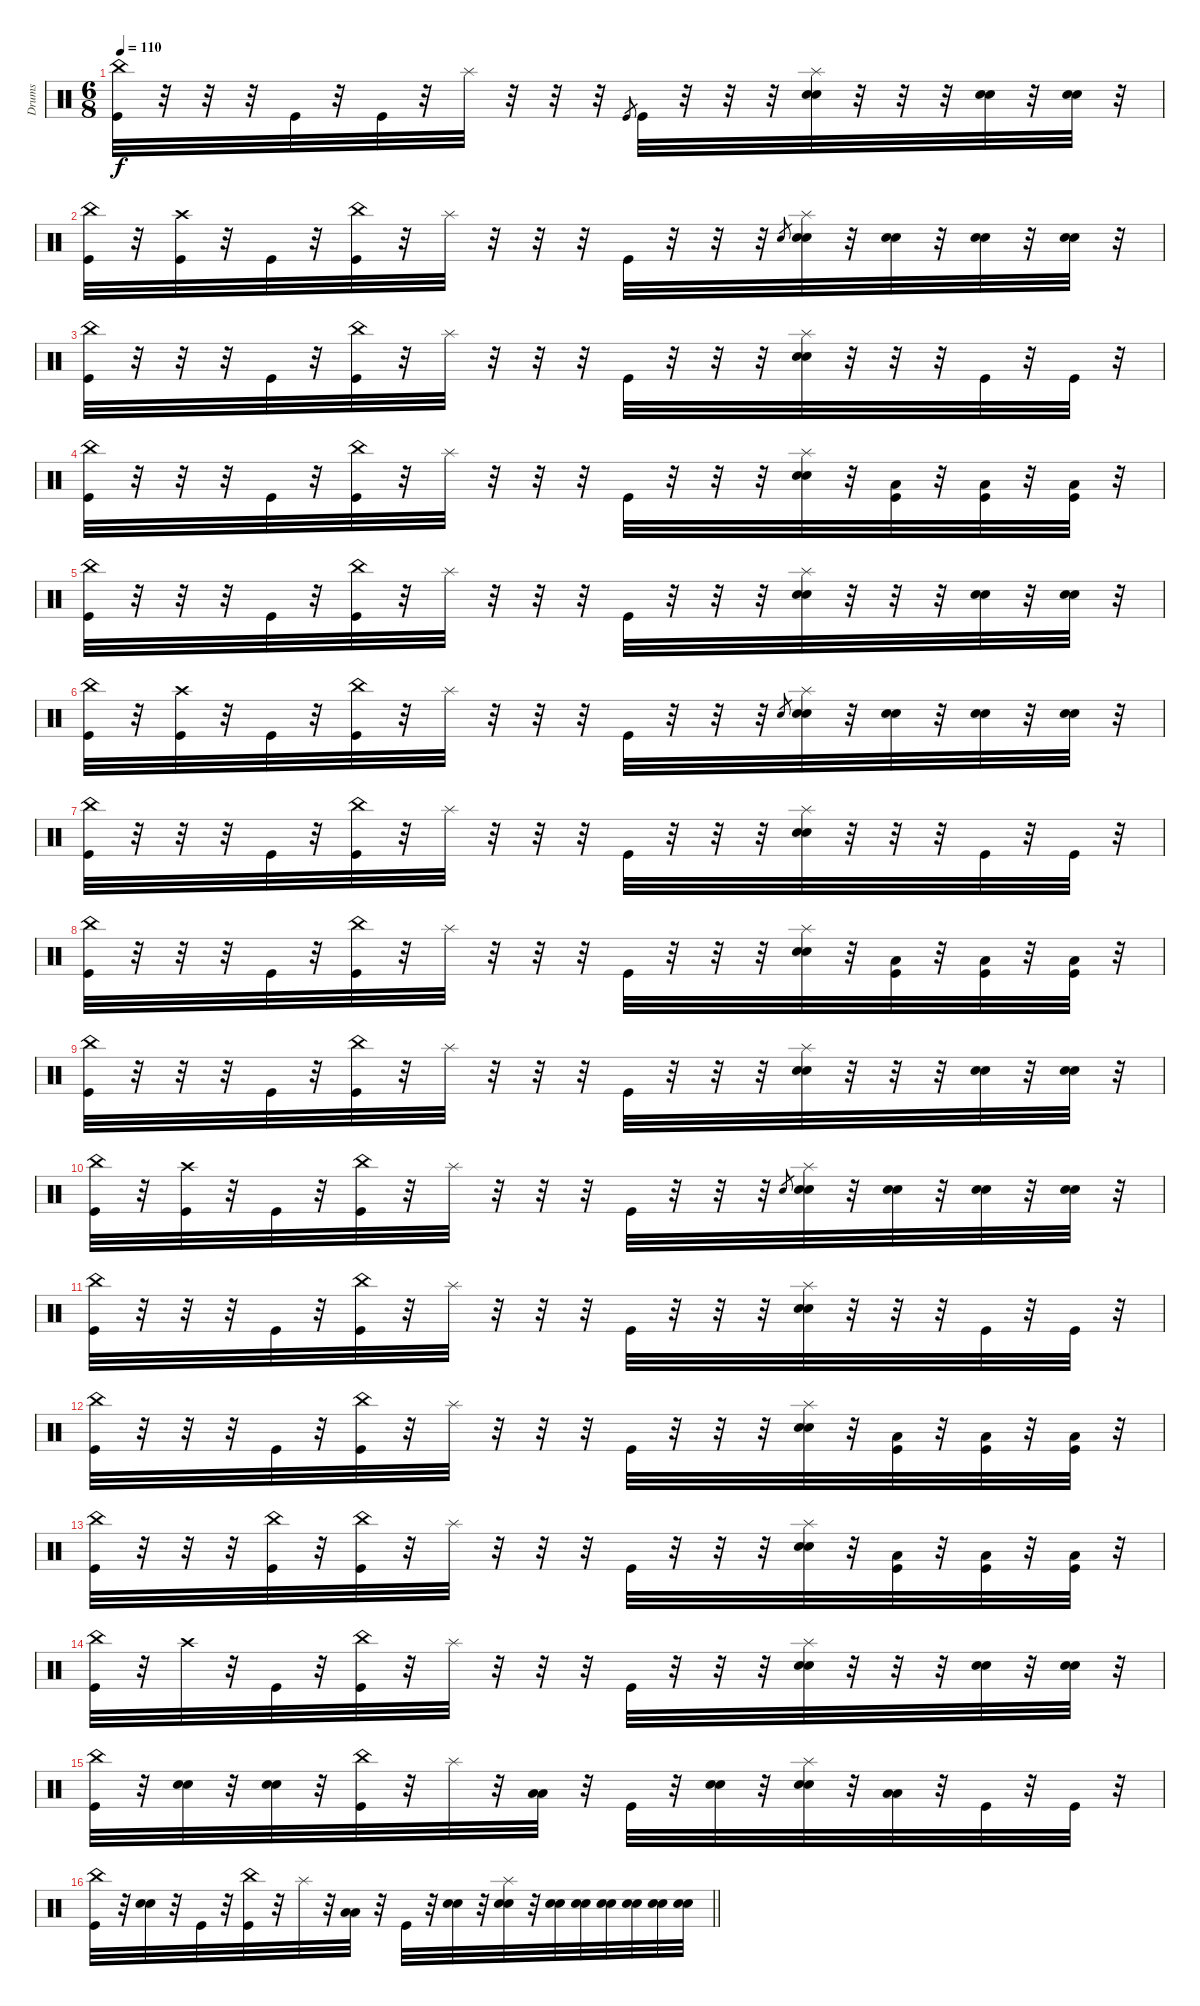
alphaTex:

\track ("Drums" "Drums") {instrument percussion}
\staff {score}
\articulation defaults
\ts (6 8)
\tempo 110
\clef neutral
\ks c
("China (hit)" "Kick (hit)").32{dy f} r.32 r.32 r.32 "Kick (hit)".32 r.32 "Kick (hit)".32 r.32 "Splash (hit)".32 r.32 r.32 r.32 "Kick (hit)".8{gr} "Kick (hit)".32 r.32 r.32 r.32 ("Splash (hit)" "Electric Snare (hit)" "Electric Snare (hit)").32 r.32 r.32 r.32 ("Electric Snare (hit)" "Electric Snare (hit)").32 r.32 ("Electric Snare (hit)" "Electric Snare (hit)").32 r.32 |
("China (hit)" "Kick (hit)").32 r.32 ("Crash high (hit)" "Kick (hit)").32 r.32 "Kick (hit)".32 r.32 ("China (hit)" "Kick (hit)").32 r.32 "Splash (hit)".32 r.32 r.32 r.32 "Kick (hit)".32 r.32 r.32 r.32 "Electric Snare (hit)".8{gr} ("Splash (hit)" "Electric Snare (hit)" "Electric Snare (hit)").32 r.32 ("Electric Snare (hit)" "Electric Snare (hit)").32 r.32 ("Electric Snare (hit)" "Electric Snare (hit)").32 r.32 ("Electric Snare (hit)" "Electric Snare (hit)").32 r.32 |
("China (hit)" "Kick (hit)").32 r.32 r.32 r.32 "Kick (hit)".32 r.32 ("China (hit)" "Kick (hit)").32 r.32 "Splash (hit)".32 r.32 r.32 r.32 "Kick (hit)".32 r.32 r.32 r.32 ("Splash (hit)" "Electric Snare (hit)" "Electric Snare (hit)").32 r.32 r.32 r.32 "Kick (hit)".32 r.32 "Kick (hit)".32 r.32 |
("China (hit)" "Kick (hit)").32 r.32 r.32 r.32 "Kick (hit)".32 r.32 ("China (hit)" "Kick (hit)").32 r.32 "Splash (hit)".32 r.32 r.32 r.32 "Kick (hit)".32 r.32 r.32 r.32 ("Splash (hit)" "Electric Snare (hit)" "Electric Snare (hit)").32 r.32 ("Low Floor Tom (hit)" "Kick (hit)").32 r.32 ("Low Floor Tom (hit)" "Kick (hit)").32 r.32 ("Low Floor Tom (hit)" "Kick (hit)").32 r.32 |
("China (hit)" "Kick (hit)").32 r.32 r.32 r.32 "Kick (hit)".32 r.32 ("China (hit)" "Kick (hit)").32 r.32 "Splash (hit)".32 r.32 r.32 r.32 "Kick (hit)".32 r.32 r.32 r.32 ("Splash (hit)" "Electric Snare (hit)" "Electric Snare (hit)").32 r.32 r.32 r.32 ("Electric Snare (hit)" "Electric Snare (hit)").32 r.32 ("Electric Snare (hit)" "Electric Snare (hit)").32 r.32 |
("China (hit)" "Kick (hit)").32 r.32 ("Crash high (hit)" "Kick (hit)").32 r.32 "Kick (hit)".32 r.32 ("China (hit)" "Kick (hit)").32 r.32 "Splash (hit)".32 r.32 r.32 r.32 "Kick (hit)".32 r.32 r.32 r.32 "Electric Snare (hit)".8{gr} ("Splash (hit)" "Electric Snare (hit)" "Electric Snare (hit)").32 r.32 ("Electric Snare (hit)" "Electric Snare (hit)").32 r.32 ("Electric Snare (hit)" "Electric Snare (hit)").32 r.32 ("Electric Snare (hit)" "Electric Snare (hit)").32 r.32 |
("China (hit)" "Kick (hit)").32 r.32 r.32 r.32 "Kick (hit)".32 r.32 ("China (hit)" "Kick (hit)").32 r.32 "Splash (hit)".32 r.32 r.32 r.32 "Kick (hit)".32 r.32 r.32 r.32 ("Splash (hit)" "Electric Snare (hit)" "Electric Snare (hit)").32 r.32 r.32 r.32 "Kick (hit)".32 r.32 "Kick (hit)".32 r.32 |
("China (hit)" "Kick (hit)").32 r.32 r.32 r.32 "Kick (hit)".32 r.32 ("China (hit)" "Kick (hit)").32 r.32 "Splash (hit)".32 r.32 r.32 r.32 "Kick (hit)".32 r.32 r.32 r.32 ("Splash (hit)" "Electric Snare (hit)" "Electric Snare (hit)").32 r.32 ("Low Floor Tom (hit)" "Kick (hit)").32 r.32 ("Low Floor Tom (hit)" "Kick (hit)").32 r.32 ("Low Floor Tom (hit)" "Kick (hit)").32 r.32 |
("China (hit)" "Kick (hit)").32 r.32 r.32 r.32 "Kick (hit)".32 r.32 ("China (hit)" "Kick (hit)").32 r.32 "Splash (hit)".32 r.32 r.32 r.32 "Kick (hit)".32 r.32 r.32 r.32 ("Splash (hit)" "Electric Snare (hit)" "Electric Snare (hit)").32 r.32 r.32 r.32 ("Electric Snare (hit)" "Electric Snare (hit)").32 r.32 ("Electric Snare (hit)" "Electric Snare (hit)").32 r.32 |
("China (hit)" "Kick (hit)").32 r.32 ("Crash high (hit)" "Kick (hit)").32 r.32 "Kick (hit)".32 r.32 ("China (hit)" "Kick (hit)").32 r.32 "Splash (hit)".32 r.32 r.32 r.32 "Kick (hit)".32 r.32 r.32 r.32 "Electric Snare (hit)".8{gr} ("Splash (hit)" "Electric Snare (hit)" "Electric Snare (hit)").32 r.32 ("Electric Snare (hit)" "Electric Snare (hit)").32 r.32 ("Electric Snare (hit)" "Electric Snare (hit)").32 r.32 ("Electric Snare (hit)" "Electric Snare (hit)").32 r.32 |
("China (hit)" "Kick (hit)").32 r.32 r.32 r.32 "Kick (hit)".32 r.32 ("China (hit)" "Kick (hit)").32 r.32 "Splash (hit)".32 r.32 r.32 r.32 "Kick (hit)".32 r.32 r.32 r.32 ("Splash (hit)" "Electric Snare (hit)" "Electric Snare (hit)").32 r.32 r.32 r.32 "Kick (hit)".32 r.32 "Kick (hit)".32 r.32 |
("China (hit)" "Kick (hit)").32 r.32 r.32 r.32 "Kick (hit)".32 r.32 ("China (hit)" "Kick (hit)").32 r.32 "Splash (hit)".32 r.32 r.32 r.32 "Kick (hit)".32 r.32 r.32 r.32 ("Splash (hit)" "Electric Snare (hit)" "Electric Snare (hit)").32 r.32 ("Low Floor Tom (hit)" "Kick (hit)").32 r.32 ("Low Floor Tom (hit)" "Kick (hit)").32 r.32 ("Low Floor Tom (hit)" "Kick (hit)").32 r.32 |
("China (hit)" "Kick (hit)").32 r.32 r.32 r.32 ("China (hit)" "Kick (hit)").32 r.32 ("China (hit)" "Kick (hit)").32 r.32 "Splash (hit)".32 r.32 r.32 r.32 "Kick (hit)".32 r.32 r.32 r.32 ("Splash (hit)" "Electric Snare (hit)" "Electric Snare (hit)").32 r.32 ("Low Floor Tom (hit)" "Kick (hit)").32 r.32 ("Low Floor Tom (hit)" "Kick (hit)").32 r.32 ("Low Floor Tom (hit)" "Kick (hit)").32 r.32 |
("China (hit)" "Kick (hit)").32 r.32 "Crash high (hit)".32 r.32 "Kick (hit)".32 r.32 ("China (hit)" "Kick (hit)").32 r.32 "Splash (hit)".32 r.32 r.32 r.32 "Kick (hit)".32 r.32 r.32 r.32 ("Splash (hit)" "Electric Snare (hit)" "Electric Snare (hit)").32 r.32 r.32 r.32 ("Electric Snare (hit)" "Electric Snare (hit)").32 r.32 ("Electric Snare (hit)" "Electric Snare (hit)").32 r.32 |
("China (hit)" "Kick (hit)").32 r.32 ("Electric Snare (hit)" "Electric Snare (hit)").32 r.32 ("Electric Snare (hit)" "Electric Snare (hit)").32 r.32 ("China (hit)" "Kick (hit)").32 r.32 "Splash (hit)".32 r.32 ("Low Floor Tom (hit)" "Low Floor Tom (hit)").32 r.32 "Kick (hit)".32 r.32 ("Electric Snare (hit)" "Electric Snare (hit)").32 r.32 ("Splash (hit)" "Electric Snare (hit)" "Electric Snare (hit)").32 r.32 ("Low Floor Tom (hit)" "Low Floor Tom (hit)").32 r.32 "Kick (hit)".32 r.32 "Kick (hit)".32 r.32 |
\barLineRight lightlight
("China (hit)" "Kick (hit)").32 r.32 ("Electric Snare (hit)" "Electric Snare (hit)").32 r.32 "Kick (hit)".32 r.32 ("China (hit)" "Kick (hit)").32 r.32 "Splash (hit)".32 r.32 ("Low Floor Tom (hit)" "Low Floor Tom (hit)").32 r.32 "Kick (hit)".32 r.32 ("Electric Snare (hit)" "Electric Snare (hit)").32 r.32 ("Splash (hit)" "Electric Snare (hit)" "Electric Snare (hit)").32 r.32 ("Electric Snare (hit)" "Electric Snare (hit)").32 ("Electric Snare (hit)" "Electric Snare (hit)").32 ("Electric Snare (hit)" "Electric Snare (hit)").32 ("Electric Snare (hit)" "Electric Snare (hit)").32 ("Electric Snare (hit)" "Electric Snare (hit)").32 ("Electric Snare (hit)" "Electric Snare (hit)").32
